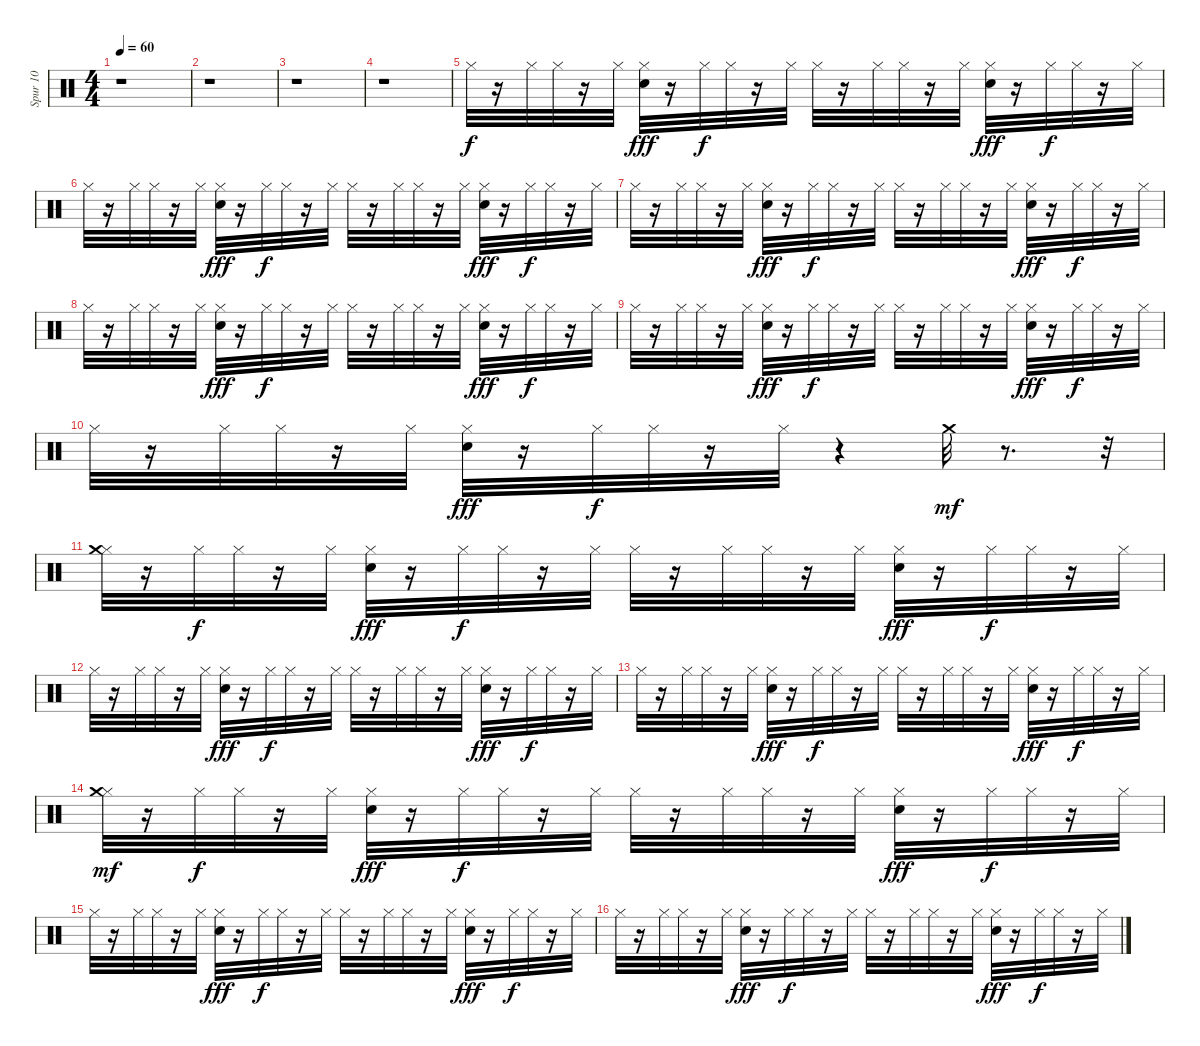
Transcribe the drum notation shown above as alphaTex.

\track ("Spur 10" "Spur 10") {instrument percussion}
\staff {score}
\articulation defaults
\ts (4 4)
\tempo 60
\clef neutral
\ks c
r.1{dy f} |
r.1 |
r.1 |
r.1 |
"Hi-Hat (closed)".32 r.16 "Hi-Hat (closed)".32 "Hi-Hat (closed)".32 r.16 "Hi-Hat (closed)".32 ("Snare (hit) 2" "Hi-Hat (closed)").32{dy fff} r.16 "Hi-Hat (closed)".32{dy f} "Hi-Hat (closed)".32 r.16 "Hi-Hat (closed)".32 "Hi-Hat (closed)".32 r.16 "Hi-Hat (closed)".32 "Hi-Hat (closed)".32 r.16 "Hi-Hat (closed)".32 ("Snare (hit) 2" "Hi-Hat (closed)").32{dy fff} r.16 "Hi-Hat (closed)".32{dy f} "Hi-Hat (closed)".32 r.16 "Hi-Hat (closed)".32 |
"Hi-Hat (closed)".32 r.16 "Hi-Hat (closed)".32 "Hi-Hat (closed)".32 r.16 "Hi-Hat (closed)".32 ("Snare (hit) 2" "Hi-Hat (closed)").32{dy fff} r.16 "Hi-Hat (closed)".32{dy f} "Hi-Hat (closed)".32 r.16 "Hi-Hat (closed)".32 "Hi-Hat (closed)".32 r.16 "Hi-Hat (closed)".32 "Hi-Hat (closed)".32 r.16 "Hi-Hat (closed)".32 ("Snare (hit) 2" "Hi-Hat (closed)").32{dy fff} r.16 "Hi-Hat (closed)".32{dy f} "Hi-Hat (closed)".32 r.16 "Hi-Hat (closed)".32 |
"Hi-Hat (closed)".32 r.16 "Hi-Hat (closed)".32 "Hi-Hat (closed)".32 r.16 "Hi-Hat (closed)".32 ("Snare (hit) 2" "Hi-Hat (closed)").32{dy fff} r.16 "Hi-Hat (closed)".32{dy f} "Hi-Hat (closed)".32 r.16 "Hi-Hat (closed)".32 "Hi-Hat (closed)".32 r.16 "Hi-Hat (closed)".32 "Hi-Hat (closed)".32 r.16 "Hi-Hat (closed)".32 ("Snare (hit) 2" "Hi-Hat (closed)").32{dy fff} r.16 "Hi-Hat (closed)".32{dy f} "Hi-Hat (closed)".32 r.16 "Hi-Hat (closed)".32 |
"Hi-Hat (closed)".32 r.16 "Hi-Hat (closed)".32 "Hi-Hat (closed)".32 r.16 "Hi-Hat (closed)".32 ("Snare (hit) 2" "Hi-Hat (closed)").32{dy fff} r.16 "Hi-Hat (closed)".32{dy f} "Hi-Hat (closed)".32 r.16 "Hi-Hat (closed)".32 "Hi-Hat (closed)".32 r.16 "Hi-Hat (closed)".32 "Hi-Hat (closed)".32 r.16 "Hi-Hat (closed)".32 ("Snare (hit) 2" "Hi-Hat (closed)").32{dy fff} r.16 "Hi-Hat (closed)".32{dy f} "Hi-Hat (closed)".32 r.16 "Hi-Hat (closed)".32 |
"Hi-Hat (closed)".32 r.16 "Hi-Hat (closed)".32 "Hi-Hat (closed)".32 r.16 "Hi-Hat (closed)".32 ("Snare (hit) 2" "Hi-Hat (closed)").32{dy fff} r.16 "Hi-Hat (closed)".32{dy f} "Hi-Hat (closed)".32 r.16 "Hi-Hat (closed)".32 "Hi-Hat (closed)".32 r.16 "Hi-Hat (closed)".32 "Hi-Hat (closed)".32 r.16 "Hi-Hat (closed)".32 ("Snare (hit) 2" "Hi-Hat (closed)").32{dy fff} r.16 "Hi-Hat (closed)".32{dy f} "Hi-Hat (closed)".32 r.16 "Hi-Hat (closed)".32 |
"Hi-Hat (closed)".32 r.16 "Hi-Hat (closed)".32 "Hi-Hat (closed)".32 r.16 "Hi-Hat (closed)".32 ("Snare (hit) 2" "Hi-Hat (closed)").32{dy fff} r.16 "Hi-Hat (closed)".32{dy f} "Hi-Hat (closed)".32 r.16 "Hi-Hat (closed)".32 r.4 "Crash medium (hit)".32{dy mf} r.8{d} r.32 |
("Hi-Hat (closed)" "Crash medium (hit)").32 r.16 "Hi-Hat (closed)".32{dy f} "Hi-Hat (closed)".32 r.16 "Hi-Hat (closed)".32 ("Electric Snare (hit)" "Hi-Hat (closed)").32{dy fff} r.16 "Hi-Hat (closed)".32{dy f} "Hi-Hat (closed)".32 r.16 "Hi-Hat (closed)".32 "Hi-Hat (closed)".32 r.16 "Hi-Hat (closed)".32 "Hi-Hat (closed)".32 r.16 "Hi-Hat (closed)".32 ("Electric Snare (hit)" "Hi-Hat (closed)").32{dy fff} r.16 "Hi-Hat (closed)".32{dy f} "Hi-Hat (closed)".32 r.16 "Hi-Hat (closed)".32 |
"Hi-Hat (closed)".32 r.16 "Hi-Hat (closed)".32 "Hi-Hat (closed)".32 r.16 "Hi-Hat (closed)".32 ("Electric Snare (hit)" "Hi-Hat (closed)").32{dy fff} r.16 "Hi-Hat (closed)".32{dy f} "Hi-Hat (closed)".32 r.16 "Hi-Hat (closed)".32 "Hi-Hat (closed)".32 r.16 "Hi-Hat (closed)".32 "Hi-Hat (closed)".32 r.16 "Hi-Hat (closed)".32 ("Electric Snare (hit)" "Hi-Hat (closed)").32{dy fff} r.16 "Hi-Hat (closed)".32{dy f} "Hi-Hat (closed)".32 r.16 "Hi-Hat (closed)".32 |
"Hi-Hat (closed)".32 r.16 "Hi-Hat (closed)".32 "Hi-Hat (closed)".32 r.16 "Hi-Hat (closed)".32 ("Electric Snare (hit)" "Hi-Hat (closed)").32{dy fff} r.16 "Hi-Hat (closed)".32{dy f} "Hi-Hat (closed)".32 r.16 "Hi-Hat (closed)".32 "Hi-Hat (closed)".32 r.16 "Hi-Hat (closed)".32 "Hi-Hat (closed)".32 r.16 "Hi-Hat (closed)".32 ("Electric Snare (hit)" "Hi-Hat (closed)").32{dy fff} r.16 "Hi-Hat (closed)".32{dy f} "Hi-Hat (closed)".32 r.16 "Hi-Hat (closed)".32 |
("Hi-Hat (closed)" "Crash medium (hit)").32{dy mf} r.16 "Hi-Hat (closed)".32{dy f} "Hi-Hat (closed)".32 r.16 "Hi-Hat (closed)".32 ("Electric Snare (hit)" "Hi-Hat (closed)").32{dy fff} r.16 "Hi-Hat (closed)".32{dy f} "Hi-Hat (closed)".32 r.16 "Hi-Hat (closed)".32 "Hi-Hat (closed)".32 r.16 "Hi-Hat (closed)".32 "Hi-Hat (closed)".32 r.16 "Hi-Hat (closed)".32 ("Electric Snare (hit)" "Hi-Hat (closed)").32{dy fff} r.16 "Hi-Hat (closed)".32{dy f} "Hi-Hat (closed)".32 r.16 "Hi-Hat (closed)".32 |
"Hi-Hat (closed)".32 r.16 "Hi-Hat (closed)".32 "Hi-Hat (closed)".32 r.16 "Hi-Hat (closed)".32 ("Electric Snare (hit)" "Hi-Hat (closed)").32{dy fff} r.16 "Hi-Hat (closed)".32{dy f} "Hi-Hat (closed)".32 r.16 "Hi-Hat (closed)".32 "Hi-Hat (closed)".32 r.16 "Hi-Hat (closed)".32 "Hi-Hat (closed)".32 r.16 "Hi-Hat (closed)".32 ("Electric Snare (hit)" "Hi-Hat (closed)").32{dy fff} r.16 "Hi-Hat (closed)".32{dy f} "Hi-Hat (closed)".32 r.16 "Hi-Hat (closed)".32 |
"Hi-Hat (closed)".32 r.16 "Hi-Hat (closed)".32 "Hi-Hat (closed)".32 r.16 "Hi-Hat (closed)".32 ("Electric Snare (hit)" "Hi-Hat (closed)").32{dy fff} r.16 "Hi-Hat (closed)".32{dy f} "Hi-Hat (closed)".32 r.16 "Hi-Hat (closed)".32 "Hi-Hat (closed)".32 r.16 "Hi-Hat (closed)".32 "Hi-Hat (closed)".32 r.16 "Hi-Hat (closed)".32 ("Electric Snare (hit)" "Hi-Hat (closed)").32{dy fff} r.16 "Hi-Hat (closed)".32{dy f} "Hi-Hat (closed)".32 r.16 "Hi-Hat (closed)".32
